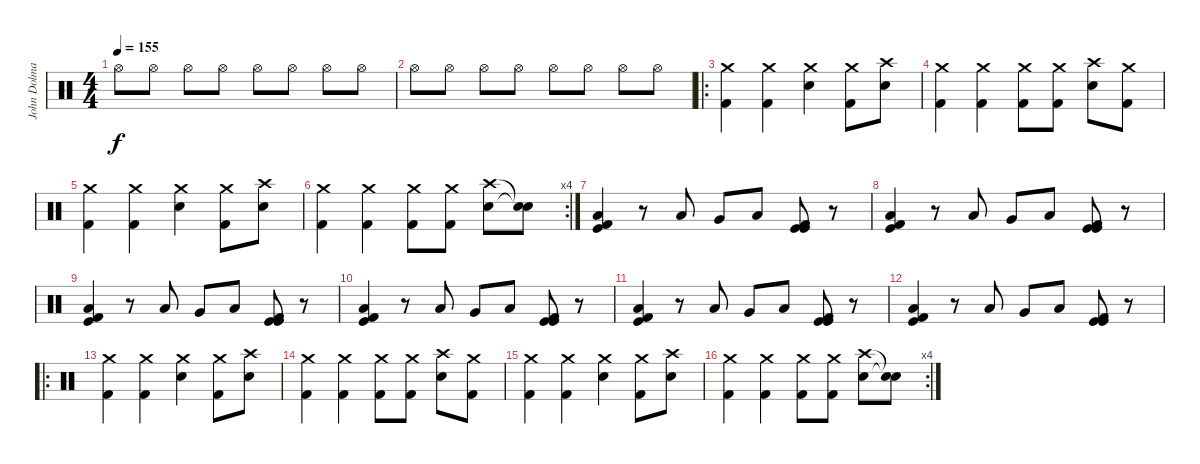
\track ("John Dolmayan - Drums" "John Dolma") {instrument percussion}
\staff {score}
\articulation defaults
\ts (4 4)
\tempo 155
\clef neutral
\ks c "Hi-Hat (open)".8{dy f} "Hi-Hat (open)".8 "Hi-Hat (open)".8 "Hi-Hat (open)".8 "Hi-Hat (open)".8 "Hi-Hat (open)".8 "Hi-Hat (open)".8 "Hi-Hat (open)".8
|
"Hi-Hat (open)".8 "Hi-Hat (open)".8 "Hi-Hat (open)".8 "Hi-Hat (open)".8 "Hi-Hat (open)".8 "Hi-Hat (open)".8 "Hi-Hat (open)".8 "Hi-Hat (open)".8 |
\ro
("Crash medium (hit)" "Kick (hit) 2").4 ("Crash medium (hit)" "Kick (hit) 2").4 ("Crash medium (hit)" "Electric Snare (hit)").4 ("Crash medium (hit)" "Kick (hit) 2").8 ("Crash high (hit)" "Electric Snare (hit)").8 |
("Crash medium (hit)" "Kick (hit) 2").4 ("Crash medium (hit)" "Kick (hit) 2").4 ("Crash medium (hit)" "Kick (hit) 2").8 ("Crash medium (hit)" "Kick (hit) 2").8 ("Crash high (hit)" "Electric Snare (hit)").8 ("Crash medium (hit)" "Kick (hit) 2").8 |
("Crash medium (hit)" "Kick (hit) 2").4 ("Crash medium (hit)" "Kick (hit) 2").4 ("Crash medium (hit)" "Electric Snare (hit)").4 ("Crash medium (hit)" "Kick (hit) 2").8 ("Crash high (hit)" "Electric Snare (hit)").8 |
\rc 4
("Crash medium (hit)" "Kick (hit) 2").4 ("Crash medium (hit)" "Kick (hit) 2").4 ("Crash medium (hit)" "Kick (hit) 2").8 ("Crash medium (hit)" "Kick (hit) 2").8 ("Crash high (hit)" "Electric Snare (hit)").8 ("Snare (hit)"{t} "Snare (hit)"{t}).8 |
("Kick (hit)" "Kick (hit) 2" "Low Tom (hit)").4 r.8 "Low Tom (hit)".8 "Very Low Tom (hit)".8 "Low Tom (hit)".8 ("Kick (hit)" "Kick (hit)" "Kick (hit) 2").8 r.8 |
("Kick (hit)" "Kick (hit) 2" "Low Tom (hit)").4 r.8 "Low Tom (hit)".8 "Very Low Tom (hit)".8 "Low Tom (hit)".8 ("Kick (hit)" "Kick (hit)" "Kick (hit) 2").8 r.8 |
("Kick (hit)" "Kick (hit) 2" "Low Tom (hit)").4 r.8 "Low Tom (hit)".8 "Very Low Tom (hit)".8 "Low Tom (hit)".8 ("Kick (hit)" "Kick (hit)" "Kick (hit) 2").8 r.8 |
("Kick (hit)" "Kick (hit) 2" "Low Tom (hit)").4 r.8 "Low Tom (hit)".8 "Very Low Tom (hit)".8 "Low Tom (hit)".8 ("Kick (hit)" "Kick (hit)" "Kick (hit) 2").8 r.8 |
("Kick (hit)" "Kick (hit) 2" "Low Tom (hit)").4 r.8 "Low Tom (hit)".8 "Very Low Tom (hit)".8 "Low Tom (hit)".8 ("Kick (hit)" "Kick (hit)" "Kick (hit) 2").8 r.8 |
("Kick (hit)" "Kick (hit) 2" "Low Tom (hit)").4 r.8 "Low Tom (hit)".8 "Very Low Tom (hit)".8 "Low Tom (hit)".8 ("Kick (hit)" "Kick (hit)" "Kick (hit) 2").8 r.8 |
\ro
("Crash medium (hit)" "Kick (hit) 2").4 ("Crash medium (hit)" "Kick (hit) 2").4 ("Crash medium (hit)" "Electric Snare (hit)").4 ("Crash medium (hit)" "Kick (hit) 2").8 ("Crash high (hit)" "Electric Snare (hit)").8 |
("Crash medium (hit)" "Kick (hit) 2").4 ("Crash medium (hit)" "Kick (hit) 2").4 ("Crash medium (hit)" "Kick (hit) 2").8 ("Crash medium (hit)" "Kick (hit) 2").8 ("Crash high (hit)" "Electric Snare (hit)").8 ("Crash medium (hit)" "Kick (hit) 2").8 |
("Crash medium (hit)" "Kick (hit) 2").4 ("Crash medium (hit)" "Kick (hit) 2").4 ("Crash medium (hit)" "Electric Snare (hit)").4 ("Crash medium (hit)" "Kick (hit) 2").8 ("Crash high (hit)" "Electric Snare (hit)").8 |
\rc 4
("Crash medium (hit)" "Kick (hit) 2").4 ("Crash medium (hit)" "Kick (hit) 2").4 ("Crash medium (hit)" "Kick (hit) 2").8 ("Crash medium (hit)" "Kick (hit) 2").8 ("Crash high (hit)" "Electric Snare (hit)").8 ("Snare (hit)"{t} "Snare (hit)"{t}).8
